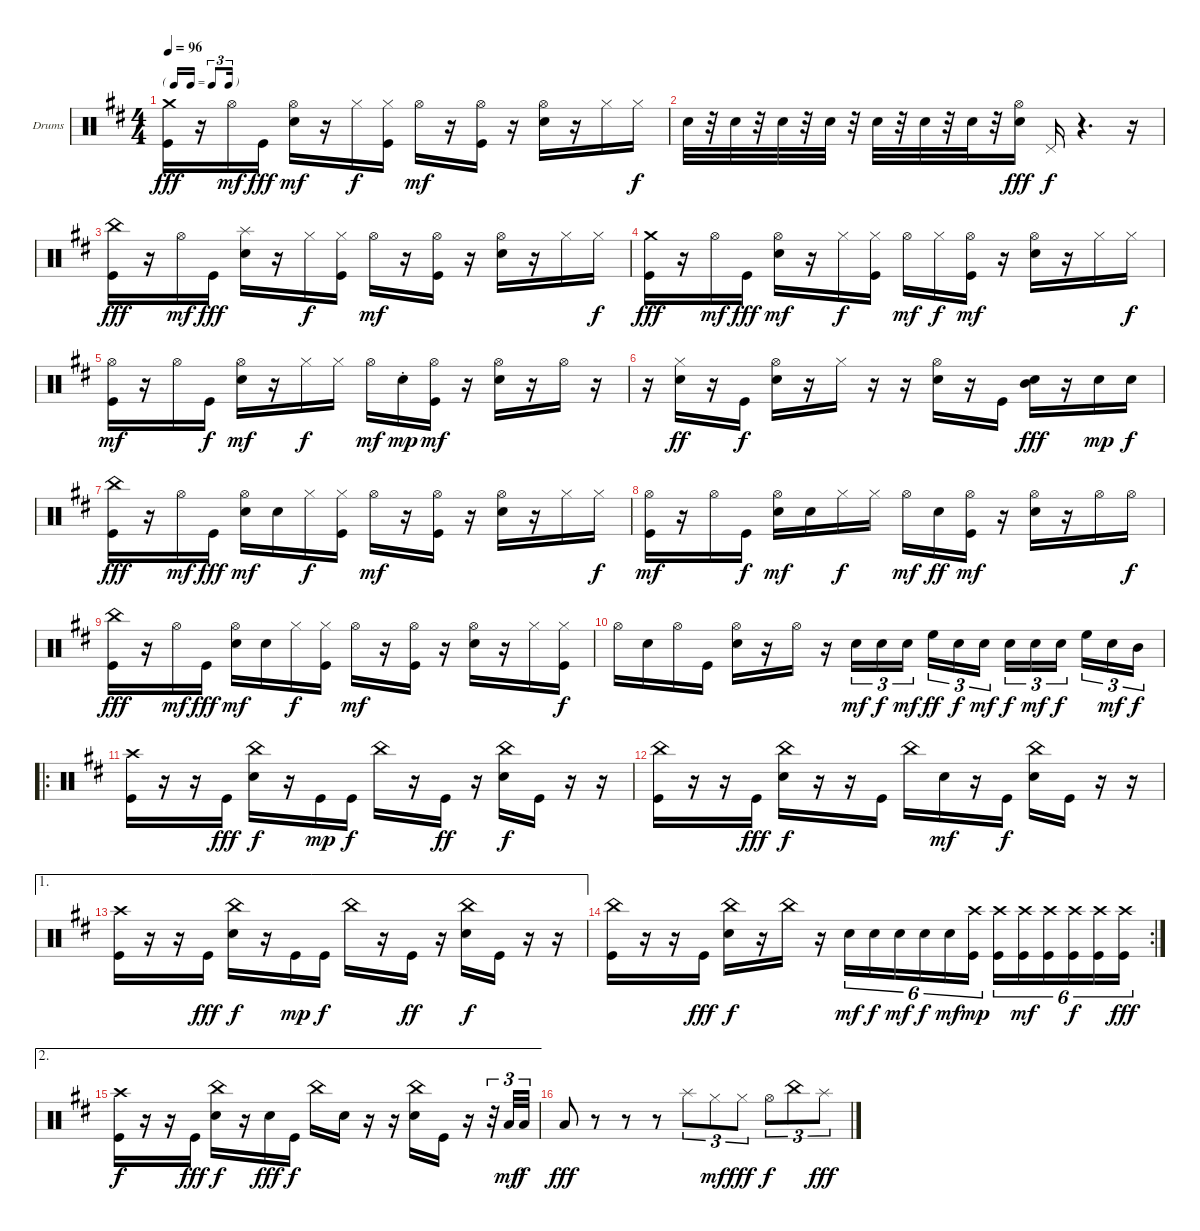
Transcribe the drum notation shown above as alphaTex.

\bracketExtendMode groupsimilarinstruments
\firstSystemTrackNameOrientation horizontal
\otherSystemsTrackNameOrientation horizontal
\track ("Drumkit" "Drums") {instrument percussion}
\staff {score}
\articulation defaults
\ts (4 4)
\tf triplet16th
\tempo 96
\clef neutral
\ks d
("Crash medium (hit)" "Kick (hit)").16{dy fff} r.16 "Hi-Hat (open)".16{dy mf} "Kick (hit)".16{dy fff} ("Hi-Hat (open)" "Snare (hit) 2").16{dy mf} r.16 "Hi-Hat (closed)".16{dy f} ("Hi-Hat (closed)" "Kick (hit)").16 "Hi-Hat (open)".16{dy mf} r.16 ("Hi-Hat (open)" "Kick (hit)").16 r.16 ("Hi-Hat (open)" "Snare (hit) 2").16 r.16 "Hi-Hat (closed)".16 "Hi-Hat (closed)".16{dy f} |
"Snare (hit) 2".32 r.32 "Snare (hit) 2".32 r.32 "Snare (hit) 2".32 r.32 "Snare (hit) 2".32 r.32 "Snare (hit) 2".32 r.32 "Snare (hit) 2".32 r.32 "Snare (hit) 2".32 r.32 ("Hi-Hat (open)" "Snare (hit) 2").16{dy fff} "Pedal Hi-Hat (hit)".16{dy f} r.4{d} r.16 |
("China (hit)" "Kick (hit)").16{dy fff} r.16 "Hi-Hat (open)".16{dy mf} "Kick (hit)".16{dy fff} ("Splash (hit)" "Snare (hit) 2").16 r.16 "Hi-Hat (closed)".16{dy f} ("Hi-Hat (closed)" "Kick (hit)").16 "Hi-Hat (open)".16{dy mf} r.16 ("Hi-Hat (open)" "Kick (hit)").16 r.16 ("Hi-Hat (open)" "Snare (hit) 2").16 r.16 "Hi-Hat (closed)".16 "Hi-Hat (closed)".16{dy f} |
("Crash medium (hit)" "Kick (hit)").16{dy fff} r.16 "Hi-Hat (open)".16{dy mf} "Kick (hit)".16{dy fff} ("Hi-Hat (open)" "Snare (hit) 2").16{dy mf} r.16 "Hi-Hat (closed)".16{dy f} ("Hi-Hat (closed)" "Kick (hit)").16 "Hi-Hat (open)".16{dy mf} "Hi-Hat (closed)".16{dy f} ("Hi-Hat (open)" "Kick (hit)").16{dy mf} r.16 ("Hi-Hat (open)" "Snare (hit) 2").16 r.16 "Hi-Hat (closed)".16 "Hi-Hat (closed)".16{dy f} |
("Hi-Hat (open)" "Kick (hit)").16{dy mf} r.16 "Hi-Hat (open)".16 "Kick (hit)".16{dy f} ("Hi-Hat (open)" "Snare (hit) 2").16{dy mf} r.16 "Hi-Hat (closed)".16{dy f} "Hi-Hat (closed)".16 "Hi-Hat (open)".16{dy mf} "Snare (hit) 2"{st}.16{dy mp} ("Hi-Hat (open)" "Kick (hit)").16{dy mf} r.16 ("Hi-Hat (open)" "Snare (hit) 2").16 r.16 "Hi-Hat (open)".16 r.16 |
r.16 ("Hi-Hat (closed)" "Snare (hit) 2").16{dy ff} r.16 "Kick (hit)".16{dy f} ("Hi-Hat (open)" "Snare (hit) 2").16 r.16 "Hi-Hat (closed)".16 r.16 r.16 ("Hi-Hat (open)" "Snare (hit) 2").16 r.16 "Kick (hit)".16 ("Mid Tom (hit)" "Snare (hit) 2").16{dy fff} r.16 "Snare (hit) 2".16{dy mp} "Snare (hit) 2".16{dy f} |
("China (hit)" "Kick (hit)").16{dy fff} r.16 "Hi-Hat (open)".16{dy mf} "Kick (hit)".16{dy fff} ("Hi-Hat (open)" "Snare (hit) 2").16{dy mf} "Snare (hit) 2".16 "Hi-Hat (closed)".16{dy f} ("Hi-Hat (closed)" "Kick (hit)").16 "Hi-Hat (open)".16{dy mf} r.16 ("Hi-Hat (open)" "Kick (hit)").16 r.16 ("Hi-Hat (open)" "Snare (hit) 2").16 r.16 "Hi-Hat (closed)".16 "Hi-Hat (closed)".16{dy f} |
("Hi-Hat (open)" "Kick (hit)").16{dy mf} r.16 "Hi-Hat (open)".16 "Kick (hit)".16{dy f} ("Hi-Hat (open)" "Snare (hit) 2").16{dy mf} "Snare (hit) 2".16 "Hi-Hat (closed)".16{dy f} "Hi-Hat (closed)".16 "Hi-Hat (open)".16{dy mf} "Snare (hit) 2".16{dy ff} ("Hi-Hat (open)" "Kick (hit)").16{dy mf} r.16 ("Hi-Hat (open)" "Snare (hit) 2").16 r.16 "Hi-Hat (open)".16 "Hi-Hat (open)".16{dy f} |
("China (hit)" "Kick (hit)").16{dy fff} r.16 "Hi-Hat (open)".16{dy mf} "Kick (hit)".16{dy fff} ("Hi-Hat (open)" "Snare (hit) 2").16{dy mf} "Snare (hit) 2".16 "Hi-Hat (closed)".16{dy f} ("Hi-Hat (closed)" "Kick (hit)").16 "Hi-Hat (open)".16{dy mf} r.16 ("Hi-Hat (open)" "Kick (hit)").16 r.16 ("Hi-Hat (open)" "Snare (hit) 2").16 r.16 "Hi-Hat (closed)".16 ("Hi-Hat (closed)" "Kick (hit)").16{dy f} |
"Hi-Hat (open)".16 "Snare (hit) 2".16 "Hi-Hat (open)".16 "Kick (hit)".16 ("Hi-Hat (open)" "Snare (hit) 2").16 r.16 "Hi-Hat (open)".16 r.16 "Snare (hit) 2".16{tu (3 2) dy mf} "Snare (hit) 2".16{tu (3 2) dy f} "Snare (hit) 2".16{tu (3 2) dy mf} "High Floor Tom (hit)".16{tu (3 2) dy ff} "Snare (hit) 2".16{tu (3 2) dy f} "Snare (hit) 2".16{tu (3 2) dy mf} "Snare (hit) 2".16{tu (3 2) dy f} "Snare (hit) 2".16{tu (3 2) dy mf} "Snare (hit) 2".16{tu (3 2) dy f} "High Floor Tom (hit)".16{tu (3 2)} "Snare (hit) 2".16{tu (3 2) dy mf} "Mid Tom (hit)".16{tu (3 2) dy f} |
\ro
("Crash high (hit)" "Kick (hit)").16 r.16 r.16 "Kick (hit)".16{dy fff} ("China (hit)" "Snare (hit) 2").16{dy f} r.16 "Kick (hit)".16{dy mp} "Kick (hit)".16{dy f} "China (hit)".16 r.16 "Kick (hit)".16{dy ff} r.16 ("China (hit)" "Snare (hit) 2").16{dy f} "Kick (hit)".16 r.16 r.16 |
("China (hit)" "Kick (hit)").16 r.16 r.16 "Kick (hit)".16{dy fff} ("China (hit)" "Snare (hit) 2").16{dy f} r.16 r.16 "Kick (hit)".16 "China (hit)".16 "Snare (hit) 2".16{dy mf} r.16 "Kick (hit)".16{dy f} ("China (hit)" "Snare (hit) 2").16 "Kick (hit)".16 r.16 r.16 |
\ae 1
("Crash high (hit)" "Kick (hit)").16 r.16 r.16 "Kick (hit)".16{dy fff} ("China (hit)" "Snare (hit) 2").16{dy f} r.16 "Kick (hit)".16{dy mp} "Kick (hit)".16{dy f} "China (hit)".16 r.16 "Kick (hit)".16{dy ff} r.16 ("China (hit)" "Snare (hit) 2").16{dy f} "Kick (hit)".16 r.16 r.16 |
\rc 2
("China (hit)" "Kick (hit)").16 r.16 r.16 "Kick (hit)".16{dy fff} ("China (hit)" "Snare (hit) 2").16{dy f} r.16 "China (hit)".16 r.16 "Snare (hit) 2".16{tu (6 4) dy mf} "Snare (hit) 2".16{tu (6 4) dy f} "Snare (hit) 2".16{tu (6 4) dy mf} "Snare (hit) 2".16{tu (6 4) dy f} "Snare (hit) 2".16{tu (6 4) dy mf} ("Crash high (hit)" "Kick (hit)").16{tu (6 4) dy mp} ("Crash high (hit)" "Kick (hit)").16{tu (6 4)} ("Crash high (hit)" "Kick (hit)").16{tu (6 4) dy mf} ("Crash high (hit)" "Kick (hit)").16{tu (6 4)} ("Crash high (hit)" "Kick (hit)").16{tu (6 4) dy f} ("Crash high (hit)" "Kick (hit)").16{tu (6 4)} ("Crash high (hit)" "Kick (hit)").16{tu (6 4) dy fff} |
\ae 2
("Crash high (hit)" "Kick (hit)").16{dy f} r.16 r.16 "Kick (hit)".16{dy fff} ("China (hit)" "Snare (hit) 2").16{dy f} r.16 "Snare (hit) 2".16{dy fff} "Kick (hit)".16{dy f} "China (hit)".16 "Snare (hit) 2".16 r.16 r.16 ("China (hit)" "Snare (hit) 2").16 "Kick (hit)".16 r.16 r.32{tu (3 2)} "Low Tom (hit)".32{tu (3 2) dy mf} "Low Tom (hit)".32{tu (3 2) dy f} |
"Low Tom (hit)".8{dy fff} r.8 r.8 r.8 "Splash (hit)".8{tu (3 2)} "Hi-Hat (closed)".8{tu (3 2) dy mf} "Hi-Hat (closed)".8{tu (3 2) dy fff} "Hi-Hat (open)".8{tu (3 2) dy f} "China (hit)".8{tu (3 2)} "Splash (hit)".8{tu (3 2) dy fff}
